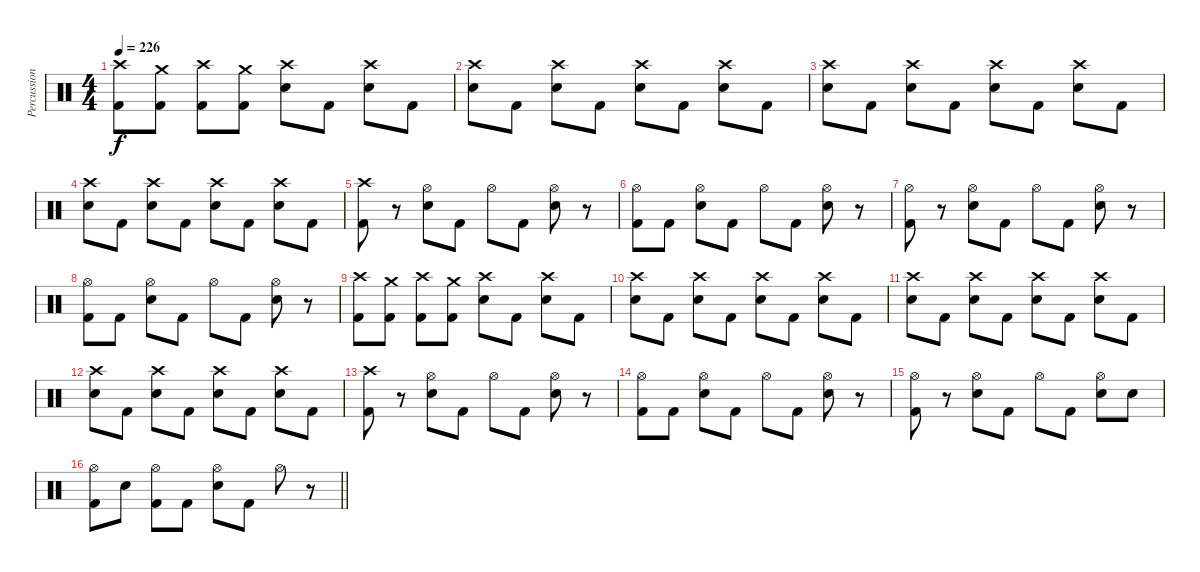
\track ("Percussion" "Percussion") {instrument percussion}
\staff {score}
\articulation defaults
\ts (4 4)
\section ("" "")
\tempo 226
\clef neutral
\ks c
("Crash high (hit)" "Kick (hit) 2").8{dy f} ("Crash medium (hit)" "Kick (hit) 2").8 ("Crash high (hit)" "Kick (hit) 2").8 ("Crash medium (hit)" "Kick (hit) 2").8 ("Crash high (hit)" "Snare (hit) 2").8 "Kick (hit) 2".8 ("Crash high (hit)" "Snare (hit) 2").8 "Kick (hit) 2".8 |
("Crash high (hit)" "Snare (hit) 2").8 "Kick (hit) 2".8 ("Crash high (hit)" "Snare (hit) 2").8 "Kick (hit) 2".8 ("Crash high (hit)" "Snare (hit) 2").8 "Kick (hit) 2".8 ("Crash high (hit)" "Snare (hit) 2").8 "Kick (hit) 2".8 |
("Crash high (hit)" "Snare (hit) 2").8 "Kick (hit) 2".8 ("Crash high (hit)" "Snare (hit) 2").8 "Kick (hit) 2".8 ("Crash high (hit)" "Snare (hit) 2").8 "Kick (hit) 2".8 ("Crash high (hit)" "Snare (hit) 2").8 "Kick (hit) 2".8 |
("Crash high (hit)" "Snare (hit) 2").8 "Kick (hit) 2".8 ("Crash high (hit)" "Snare (hit) 2").8 "Kick (hit) 2".8 ("Crash high (hit)" "Snare (hit) 2").8 "Kick (hit) 2".8 ("Crash high (hit)" "Snare (hit) 2").8 "Kick (hit) 2".8 |
("Crash high (hit)" "Kick (hit) 2").8 r.8 ("Hi-Hat (open)" "Snare (hit) 2").8 "Kick (hit) 2".8 "Hi-Hat (open)".8 "Kick (hit) 2".8 ("Hi-Hat (open)" "Snare (hit) 2").8 r.8 |
("Hi-Hat (open)" "Kick (hit) 2").8 "Kick (hit) 2".8 ("Hi-Hat (open)" "Snare (hit) 2").8 "Kick (hit) 2".8 "Hi-Hat (open)".8 "Kick (hit) 2".8 ("Hi-Hat (open)" "Snare (hit) 2").8 r.8 |
("Hi-Hat (open)" "Kick (hit) 2").8 r.8 ("Hi-Hat (open)" "Snare (hit) 2").8 "Kick (hit) 2".8 "Hi-Hat (open)".8 "Kick (hit) 2".8 ("Hi-Hat (open)" "Snare (hit) 2").8 r.8 |
("Hi-Hat (open)" "Kick (hit) 2").8 "Kick (hit) 2".8 ("Hi-Hat (open)" "Snare (hit) 2").8 "Kick (hit) 2".8 "Hi-Hat (open)".8 "Kick (hit) 2".8 ("Hi-Hat (open)" "Snare (hit) 2").8 r.8 |
("Crash high (hit)" "Kick (hit) 2").8 ("Crash medium (hit)" "Kick (hit) 2").8 ("Crash high (hit)" "Kick (hit) 2").8 ("Crash medium (hit)" "Kick (hit) 2").8 ("Crash high (hit)" "Snare (hit) 2").8 "Kick (hit) 2".8 ("Crash high (hit)" "Snare (hit) 2").8 "Kick (hit) 2".8 |
("Crash high (hit)" "Snare (hit) 2").8 "Kick (hit) 2".8 ("Crash high (hit)" "Snare (hit) 2").8 "Kick (hit) 2".8 ("Crash high (hit)" "Snare (hit) 2").8 "Kick (hit) 2".8 ("Crash high (hit)" "Snare (hit) 2").8 "Kick (hit) 2".8 |
("Crash high (hit)" "Snare (hit) 2").8 "Kick (hit) 2".8 ("Crash high (hit)" "Snare (hit) 2").8 "Kick (hit) 2".8 ("Crash high (hit)" "Snare (hit) 2").8 "Kick (hit) 2".8 ("Crash high (hit)" "Snare (hit) 2").8 "Kick (hit) 2".8 |
("Crash high (hit)" "Snare (hit) 2").8 "Kick (hit) 2".8 ("Crash high (hit)" "Snare (hit) 2").8 "Kick (hit) 2".8 ("Crash high (hit)" "Snare (hit) 2").8 "Kick (hit) 2".8 ("Crash high (hit)" "Snare (hit) 2").8 "Kick (hit) 2".8 |
("Crash high (hit)" "Kick (hit) 2").8 r.8 ("Hi-Hat (open)" "Snare (hit) 2").8 "Kick (hit) 2".8 "Hi-Hat (open)".8 "Kick (hit) 2".8 ("Hi-Hat (open)" "Snare (hit) 2").8 r.8 |
("Hi-Hat (open)" "Kick (hit) 2").8 "Kick (hit) 2".8 ("Hi-Hat (open)" "Snare (hit) 2").8 "Kick (hit) 2".8 "Hi-Hat (open)".8 "Kick (hit) 2".8 ("Hi-Hat (open)" "Snare (hit) 2").8 r.8 |
("Hi-Hat (open)" "Kick (hit) 2").8 r.8 ("Hi-Hat (open)" "Snare (hit) 2").8 "Kick (hit) 2".8 "Hi-Hat (open)".8 "Kick (hit) 2".8 ("Hi-Hat (open)" "Snare (hit) 2").8 "Snare (hit) 2".8 |
\barLineRight lightlight
("Hi-Hat (open)" "Kick (hit) 2").8 "Snare (hit) 2".8 ("Hi-Hat (open)" "Kick (hit) 2").8 "Kick (hit) 2".8 ("Hi-Hat (open)" "Snare (hit) 2").8 "Kick (hit) 2".8 "Hi-Hat (open)".8 r.8
